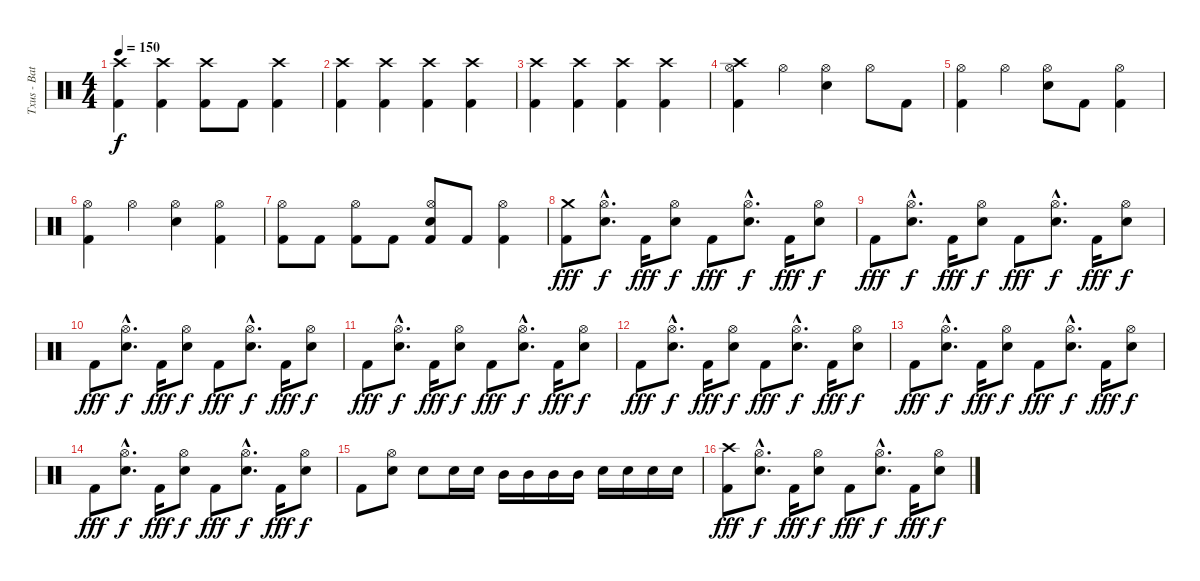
\track ("Txus - Batería" "Txus - Bat") {instrument percussion}
\staff {score}
\articulation defaults
\ts (4 4)
\tempo 150
\clef neutral
\ks c
("Crash high (hit)" "Kick (hit) 2").4{dy f} ("Crash high (hit)" "Kick (hit) 2").4 ("Crash high (hit)" "Kick (hit) 2").8 "Kick (hit) 2".8 ("Crash high (hit)" "Kick (hit) 2").4 |
("Crash high (hit)" "Kick (hit) 2").4 ("Crash high (hit)" "Kick (hit) 2").4 ("Crash high (hit)" "Kick (hit) 2").4 ("Crash high (hit)" "Kick (hit) 2").4 |
("Crash high (hit)" "Kick (hit) 2").4 ("Crash high (hit)" "Kick (hit) 2").4 ("Crash high (hit)" "Kick (hit) 2").4 ("Crash high (hit)" "Kick (hit) 2").4 |
("Crash high (hit)" "Hi-Hat (open)" "Kick (hit) 2").4 "Hi-Hat (open)".4 ("Hi-Hat (open)" "Electric Snare (hit)").4 "Hi-Hat (open)".8 "Kick (hit) 2".8 |
("Hi-Hat (open)" "Kick (hit) 2").4 "Hi-Hat (open)".4 ("Hi-Hat (open)" "Electric Snare (hit)").8 "Kick (hit) 2".8 ("Hi-Hat (open)" "Kick (hit) 2").4 |
("Hi-Hat (open)" "Kick (hit) 2").4 "Hi-Hat (open)".4 ("Hi-Hat (open)" "Electric Snare (hit)").4 ("Hi-Hat (open)" "Kick (hit) 2").4 |
("Hi-Hat (open)" "Kick (hit) 2").8 "Kick (hit) 2".8 ("Hi-Hat (open)" "Kick (hit) 2").8 "Kick (hit) 2".8 ("Hi-Hat (open)" "Electric Snare (hit)" "Kick (hit) 2").8 "Kick (hit) 2".8 ("Hi-Hat (open)" "Kick (hit) 2").4 |
("Crash medium (hit)" "Kick (hit) 2").8{dy fff} ("Hi-Hat (open)"{hac} "Electric Snare (hit)"{hac}).8{d dy f} "Kick (hit) 2".16{dy fff} ("Hi-Hat (open)" "Electric Snare (hit)").8{dy f} "Kick (hit) 2".8{dy fff} ("Hi-Hat (open)"{hac} "Electric Snare (hit)"{hac}).8{d dy f} "Kick (hit) 2".16{dy fff} ("Hi-Hat (open)" "Electric Snare (hit)").8{dy f} |
"Kick (hit) 2".8{dy fff} ("Hi-Hat (open)"{hac} "Electric Snare (hit)"{hac}).8{d dy f} "Kick (hit) 2".16{dy fff} ("Hi-Hat (open)" "Electric Snare (hit)").8{dy f} "Kick (hit) 2".8{dy fff} ("Hi-Hat (open)"{hac} "Electric Snare (hit)"{hac}).8{d dy f} "Kick (hit) 2".16{dy fff} ("Hi-Hat (open)" "Electric Snare (hit)").8{dy f} |
"Kick (hit) 2".8{dy fff} ("Hi-Hat (open)"{hac} "Electric Snare (hit)"{hac}).8{d dy f} "Kick (hit) 2".16{dy fff} ("Hi-Hat (open)" "Electric Snare (hit)").8{dy f} "Kick (hit) 2".8{dy fff} ("Hi-Hat (open)"{hac} "Electric Snare (hit)"{hac}).8{d dy f} "Kick (hit) 2".16{dy fff} ("Hi-Hat (open)" "Electric Snare (hit)").8{dy f} |
"Kick (hit) 2".8{dy fff} ("Hi-Hat (open)"{hac} "Electric Snare (hit)"{hac}).8{d dy f} "Kick (hit) 2".16{dy fff} ("Hi-Hat (open)" "Electric Snare (hit)").8{dy f} "Kick (hit) 2".8{dy fff} ("Hi-Hat (open)"{hac} "Electric Snare (hit)"{hac}).8{d dy f} "Kick (hit) 2".16{dy fff} ("Hi-Hat (open)" "Electric Snare (hit)").8{dy f} |
"Kick (hit) 2".8{dy fff} ("Hi-Hat (open)"{hac} "Electric Snare (hit)"{hac}).8{d dy f} "Kick (hit) 2".16{dy fff} ("Hi-Hat (open)" "Electric Snare (hit)").8{dy f} "Kick (hit) 2".8{dy fff} ("Hi-Hat (open)"{hac} "Electric Snare (hit)"{hac}).8{d dy f} "Kick (hit) 2".16{dy fff} ("Hi-Hat (open)" "Electric Snare (hit)").8{dy f} |
"Kick (hit) 2".8{dy fff} ("Hi-Hat (open)"{hac} "Electric Snare (hit)"{hac}).8{d dy f} "Kick (hit) 2".16{dy fff} ("Hi-Hat (open)" "Electric Snare (hit)").8{dy f} "Kick (hit) 2".8{dy fff} ("Hi-Hat (open)"{hac} "Electric Snare (hit)"{hac}).8{d dy f} "Kick (hit) 2".16{dy fff} ("Hi-Hat (open)" "Electric Snare (hit)").8{dy f} |
"Kick (hit) 2".8{dy fff} ("Hi-Hat (open)"{hac} "Electric Snare (hit)"{hac}).8{d dy f} "Kick (hit) 2".16{dy fff} ("Hi-Hat (open)" "Electric Snare (hit)").8{dy f} "Kick (hit) 2".8{dy fff} ("Hi-Hat (open)"{hac} "Electric Snare (hit)"{hac}).8{d dy f} "Kick (hit) 2".16{dy fff} ("Hi-Hat (open)" "Electric Snare (hit)").8{dy f} |
"Kick (hit) 2".8 ("Hi-Hat (open)" "Electric Snare (hit)").8 "Electric Snare (hit)".8 "Electric Snare (hit)".16 "Electric Snare (hit)".16 "Mid Tom (hit)".16 "Mid Tom (hit)".16 "Mid Tom (hit)".16 "Mid Tom (hit)".16 "Electric Snare (hit)".16 "Electric Snare (hit)".16 "Electric Snare (hit)".16 "Electric Snare (hit)".16 |
("Crash high (hit)" "Kick (hit) 2").8{dy fff} ("Hi-Hat (open)"{hac} "Electric Snare (hit)"{hac}).8{d dy f} "Kick (hit) 2".16{dy fff} ("Hi-Hat (open)" "Electric Snare (hit)").8{dy f} "Kick (hit) 2".8{dy fff} ("Hi-Hat (open)"{hac} "Electric Snare (hit)"{hac}).8{d dy f} "Kick (hit) 2".16{dy fff} ("Hi-Hat (open)" "Electric Snare (hit)").8{dy f}
